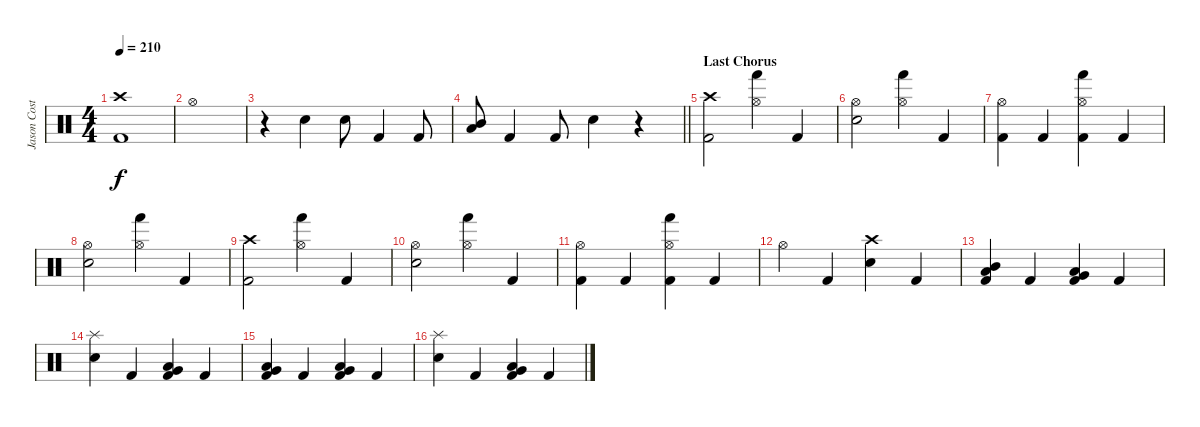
\track ("Jason Costa" "Jason Cost") {instrument percussion}
\staff {score}
\articulation defaults
\ts (4 4)
\tempo 210
\clef neutral
\ks c
("Crash high (hit)" "Kick (hit) 2").1{dy f} |
"Hi-Hat (open)".1 |
r.4 "Electric Snare (hit)".4 "Electric Snare (hit)".8 "Kick (hit) 2".4 "Kick (hit) 2".8 |
\barLineRight lightlight
("Mid Tom (hit)" "Low Tom (hit)").8 "Kick (hit) 2".4 "Kick (hit) 2".8 "Electric Snare (hit)".4 r.4 |
\section ("" "Last Chorus")
("Crash high (hit)" "Kick (hit) 2").2 ("Hi-Hat (open)" "Hand (hit)").4 "Kick (hit) 2".4 |
("Hi-Hat (open)" "Electric Snare (hit)").2 ("Hi-Hat (open)" "Hand (hit)").4 "Kick (hit) 2".4 |
("Hi-Hat (open)" "Kick (hit) 2").4 "Kick (hit) 2".4 ("Hi-Hat (open)" "Hand (hit)" "Kick (hit) 2").4 "Kick (hit) 2".4 |
("Hi-Hat (open)" "Electric Snare (hit)").2 ("Hi-Hat (open)" "Hand (hit)").4 "Kick (hit) 2".4 |
("Crash high (hit)" "Kick (hit) 2").2 ("Hi-Hat (open)" "Hand (hit)").4 "Kick (hit) 2".4 |
("Hi-Hat (open)" "Electric Snare (hit)").2 ("Hi-Hat (open)" "Hand (hit)").4 "Kick (hit) 2".4 |
("Hi-Hat (open)" "Kick (hit) 2").4 "Kick (hit) 2".4 ("Hi-Hat (open)" "Hand (hit)" "Kick (hit) 2").4 "Kick (hit) 2".4 |
"Hi-Hat (open)".4 "Kick (hit) 2".4 ("Crash high (hit)" "Electric Snare (hit)").4 "Kick (hit) 2".4 |
("Mid Tom (hit)" "Low Tom (hit)" "Kick (hit) 2").4 "Kick (hit) 2".4 ("Low Tom (hit)" "Very Low Tom (hit)" "Kick (hit) 2").4 "Kick (hit) 2".4 |
("Splash (hit)" "Electric Snare (hit)").4 "Kick (hit) 2".4 ("Low Tom (hit)" "Very Low Tom (hit)" "Kick (hit) 2").4 "Kick (hit) 2".4 |
("Low Tom (hit)" "Very Low Tom (hit)" "Kick (hit) 2").4 "Kick (hit) 2".4 ("Low Tom (hit)" "Very Low Tom (hit)" "Kick (hit) 2").4 "Kick (hit) 2".4 |
("Splash (hit)" "Electric Snare (hit)").4 "Kick (hit) 2".4 ("Low Tom (hit)" "Very Low Tom (hit)" "Kick (hit) 2").4 "Kick (hit) 2".4
